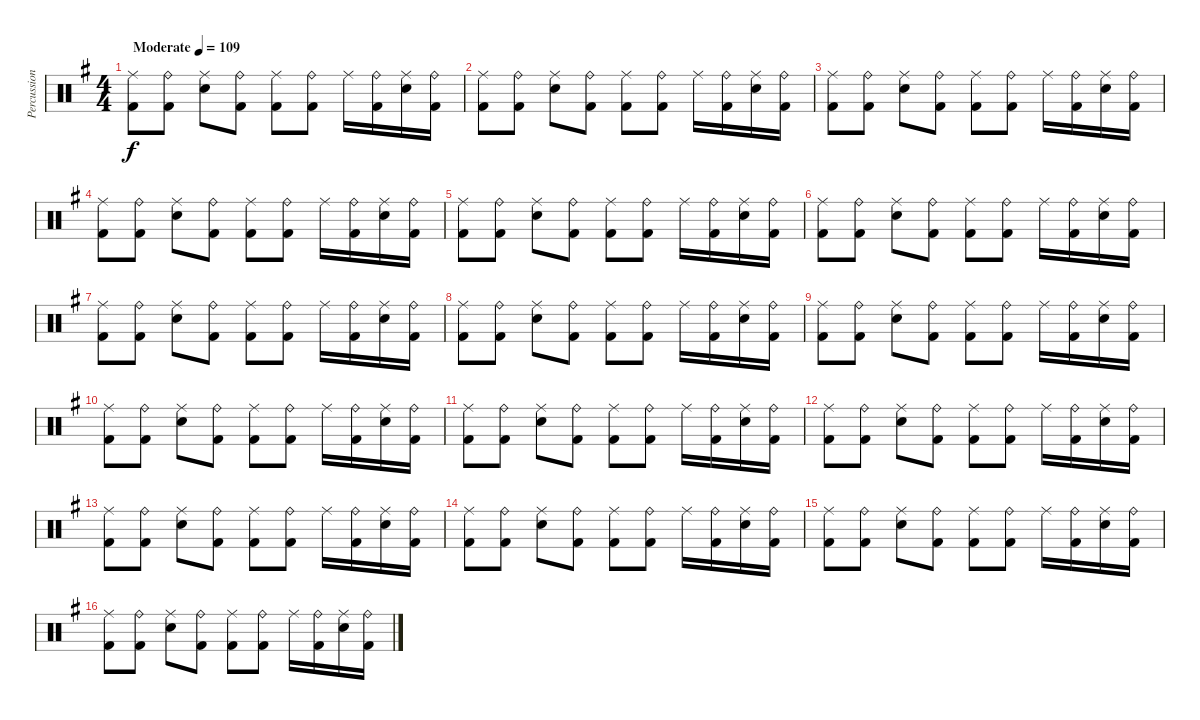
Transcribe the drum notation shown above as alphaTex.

\track ("Percussion" "Percussion") {instrument percussion}
\staff {score}
\articulation defaults
\ts (4 4)
\tempo (109 "Moderate")
\clef neutral
\ks eminor
("Kick (hit) 2" "Ride (middle)").8{dy f} ("Kick (hit) 2" "Ride (bell)").8 ("Ride (middle)" "Electric Snare (hit)").8 ("Kick (hit) 2" "Ride (bell)").8 ("Kick (hit) 2" "Ride (middle)").8 ("Kick (hit) 2" "Ride (bell)").8 "Ride (middle)".16 ("Kick (hit) 2" "Ride (bell)").16 ("Ride (middle)" "Electric Snare (hit)").16 ("Kick (hit) 2" "Ride (bell)").16 |
("Kick (hit) 2" "Ride (middle)").8 ("Kick (hit) 2" "Ride (bell)").8 ("Ride (middle)" "Electric Snare (hit)").8 ("Kick (hit) 2" "Ride (bell)").8 ("Kick (hit) 2" "Ride (middle)").8 ("Kick (hit) 2" "Ride (bell)").8 "Ride (middle)".16 ("Kick (hit) 2" "Ride (bell)").16 ("Ride (middle)" "Electric Snare (hit)").16 ("Kick (hit) 2" "Ride (bell)").16 |
("Kick (hit) 2" "Ride (middle)").8 ("Kick (hit) 2" "Ride (bell)").8 ("Ride (middle)" "Electric Snare (hit)").8 ("Kick (hit) 2" "Ride (bell)").8 ("Kick (hit) 2" "Ride (middle)").8 ("Kick (hit) 2" "Ride (bell)").8 "Ride (middle)".16 ("Kick (hit) 2" "Ride (bell)").16 ("Ride (middle)" "Electric Snare (hit)").16 ("Kick (hit) 2" "Ride (bell)").16 |
("Kick (hit) 2" "Ride (middle)").8 ("Kick (hit) 2" "Ride (bell)").8 ("Ride (middle)" "Electric Snare (hit)").8 ("Kick (hit) 2" "Ride (bell)").8 ("Kick (hit) 2" "Ride (middle)").8 ("Kick (hit) 2" "Ride (bell)").8 "Ride (middle)".16 ("Kick (hit) 2" "Ride (bell)").16 ("Ride (middle)" "Electric Snare (hit)").16 ("Kick (hit) 2" "Ride (bell)").16 |
("Kick (hit) 2" "Ride (middle)").8 ("Kick (hit) 2" "Ride (bell)").8 ("Ride (middle)" "Electric Snare (hit)").8 ("Kick (hit) 2" "Ride (bell)").8 ("Kick (hit) 2" "Ride (middle)").8 ("Kick (hit) 2" "Ride (bell)").8 "Ride (middle)".16 ("Kick (hit) 2" "Ride (bell)").16 ("Ride (middle)" "Electric Snare (hit)").16 ("Kick (hit) 2" "Ride (bell)").16 |
("Kick (hit) 2" "Ride (middle)").8 ("Kick (hit) 2" "Ride (bell)").8 ("Ride (middle)" "Electric Snare (hit)").8 ("Kick (hit) 2" "Ride (bell)").8 ("Kick (hit) 2" "Ride (middle)").8 ("Kick (hit) 2" "Ride (bell)").8 "Ride (middle)".16 ("Kick (hit) 2" "Ride (bell)").16 ("Ride (middle)" "Electric Snare (hit)").16 ("Kick (hit) 2" "Ride (bell)").16 |
("Kick (hit) 2" "Ride (middle)").8 ("Kick (hit) 2" "Ride (bell)").8 ("Ride (middle)" "Electric Snare (hit)").8 ("Kick (hit) 2" "Ride (bell)").8 ("Kick (hit) 2" "Ride (middle)").8 ("Kick (hit) 2" "Ride (bell)").8 "Ride (middle)".16 ("Kick (hit) 2" "Ride (bell)").16 ("Ride (middle)" "Electric Snare (hit)").16 ("Kick (hit) 2" "Ride (bell)").16 |
("Kick (hit) 2" "Ride (middle)").8 ("Kick (hit) 2" "Ride (bell)").8 ("Ride (middle)" "Electric Snare (hit)").8 ("Kick (hit) 2" "Ride (bell)").8 ("Kick (hit) 2" "Ride (middle)").8 ("Kick (hit) 2" "Ride (bell)").8 "Ride (middle)".16 ("Kick (hit) 2" "Ride (bell)").16 ("Ride (middle)" "Electric Snare (hit)").16 ("Kick (hit) 2" "Ride (bell)").16 |
("Kick (hit) 2" "Ride (middle)").8 ("Kick (hit) 2" "Ride (bell)").8 ("Ride (middle)" "Electric Snare (hit)").8 ("Kick (hit) 2" "Ride (bell)").8 ("Kick (hit) 2" "Ride (middle)").8 ("Kick (hit) 2" "Ride (bell)").8 "Ride (middle)".16 ("Kick (hit) 2" "Ride (bell)").16 ("Ride (middle)" "Electric Snare (hit)").16 ("Kick (hit) 2" "Ride (bell)").16 |
("Kick (hit) 2" "Ride (middle)").8 ("Kick (hit) 2" "Ride (bell)").8 ("Ride (middle)" "Electric Snare (hit)").8 ("Kick (hit) 2" "Ride (bell)").8 ("Kick (hit) 2" "Ride (middle)").8 ("Kick (hit) 2" "Ride (bell)").8 "Ride (middle)".16 ("Kick (hit) 2" "Ride (bell)").16 ("Ride (middle)" "Electric Snare (hit)").16 ("Kick (hit) 2" "Ride (bell)").16 |
("Kick (hit) 2" "Ride (middle)").8 ("Kick (hit) 2" "Ride (bell)").8 ("Ride (middle)" "Electric Snare (hit)").8 ("Kick (hit) 2" "Ride (bell)").8 ("Kick (hit) 2" "Ride (middle)").8 ("Kick (hit) 2" "Ride (bell)").8 "Ride (middle)".16 ("Kick (hit) 2" "Ride (bell)").16 ("Ride (middle)" "Electric Snare (hit)").16 ("Kick (hit) 2" "Ride (bell)").16 |
("Kick (hit) 2" "Ride (middle)").8 ("Kick (hit) 2" "Ride (bell)").8 ("Ride (middle)" "Electric Snare (hit)").8 ("Kick (hit) 2" "Ride (bell)").8 ("Kick (hit) 2" "Ride (middle)").8 ("Kick (hit) 2" "Ride (bell)").8 "Ride (middle)".16 ("Kick (hit) 2" "Ride (bell)").16 ("Ride (middle)" "Electric Snare (hit)").16 ("Kick (hit) 2" "Ride (bell)").16 |
("Kick (hit) 2" "Ride (middle)").8 ("Kick (hit) 2" "Ride (bell)").8 ("Ride (middle)" "Electric Snare (hit)").8 ("Kick (hit) 2" "Ride (bell)").8 ("Kick (hit) 2" "Ride (middle)").8 ("Kick (hit) 2" "Ride (bell)").8 "Ride (middle)".16 ("Kick (hit) 2" "Ride (bell)").16 ("Ride (middle)" "Electric Snare (hit)").16 ("Kick (hit) 2" "Ride (bell)").16 |
("Kick (hit) 2" "Ride (middle)").8 ("Kick (hit) 2" "Ride (bell)").8 ("Ride (middle)" "Electric Snare (hit)").8 ("Kick (hit) 2" "Ride (bell)").8 ("Kick (hit) 2" "Ride (middle)").8 ("Kick (hit) 2" "Ride (bell)").8 "Ride (middle)".16 ("Kick (hit) 2" "Ride (bell)").16 ("Ride (middle)" "Electric Snare (hit)").16 ("Kick (hit) 2" "Ride (bell)").16 |
("Kick (hit) 2" "Ride (middle)").8 ("Kick (hit) 2" "Ride (bell)").8 ("Ride (middle)" "Electric Snare (hit)").8 ("Kick (hit) 2" "Ride (bell)").8 ("Kick (hit) 2" "Ride (middle)").8 ("Kick (hit) 2" "Ride (bell)").8 "Ride (middle)".16 ("Kick (hit) 2" "Ride (bell)").16 ("Ride (middle)" "Electric Snare (hit)").16 ("Kick (hit) 2" "Ride (bell)").16 |
("Kick (hit) 2" "Ride (middle)").8 ("Kick (hit) 2" "Ride (bell)").8 ("Ride (middle)" "Electric Snare (hit)").8 ("Kick (hit) 2" "Ride (bell)").8 ("Kick (hit) 2" "Ride (middle)").8 ("Kick (hit) 2" "Ride (bell)").8 "Ride (middle)".16 ("Kick (hit) 2" "Ride (bell)").16 ("Ride (middle)" "Electric Snare (hit)").16 ("Kick (hit) 2" "Ride (bell)").16
